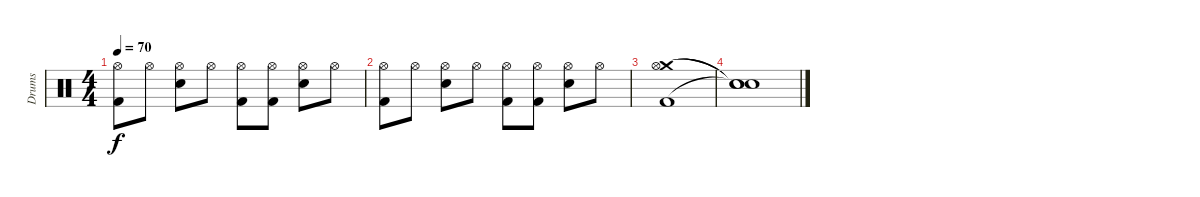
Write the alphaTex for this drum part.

\track ("Drums" "Drums") {instrument percussion}
\staff {score}
\articulation defaults
\ts (4 4)
\tempo 70
\clef neutral
\ks c
("Hi-Hat (open)" "Kick (hit) 2").8{dy f} "Hi-Hat (open)".8 ("Hi-Hat (open)" "Electric Snare (hit)").8 "Hi-Hat (open)".8 ("Hi-Hat (open)" "Kick (hit) 2").8 ("Hi-Hat (open)" "Kick (hit) 2").8 ("Hi-Hat (open)" "Electric Snare (hit)").8 "Hi-Hat (open)".8 |
("Hi-Hat (open)" "Kick (hit) 2").8 "Hi-Hat (open)".8 ("Hi-Hat (open)" "Electric Snare (hit)").8 "Hi-Hat (open)".8 ("Hi-Hat (open)" "Kick (hit) 2").8 ("Hi-Hat (open)" "Kick (hit) 2").8 ("Hi-Hat (open)" "Electric Snare (hit)").8 "Hi-Hat (open)".8 |
("Crash medium (hit)" "Hi-Hat (open)" "Kick (hit) 2").1 |
("Snare (hit)"{t} "Snare (hit)"{t} "Snare (hit)"{t}).1{volume 0}
